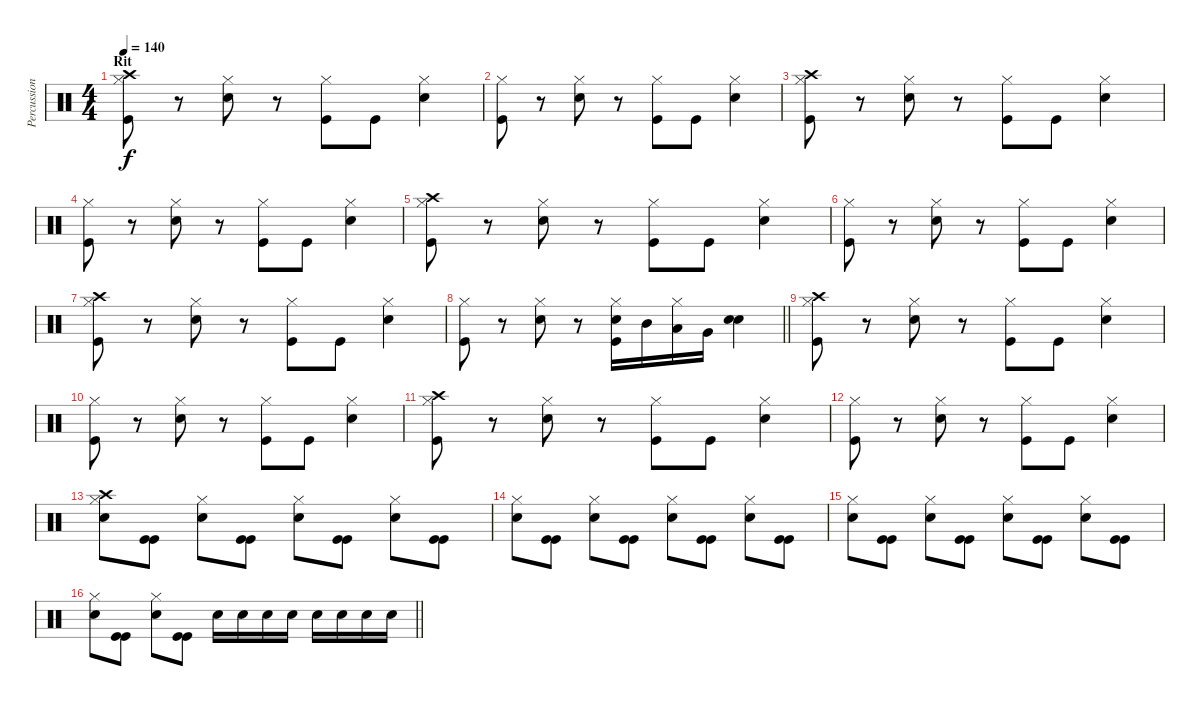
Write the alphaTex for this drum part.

\track ("Percussioni" "Percussion") {instrument percussion}
\staff {score}
\articulation defaults
\ts (4 4)
\section ("" "Rit")
\tempo 140
\clef neutral
\ks c
("Crash high (hit)" "Hi-Hat (closed)" "Kick (hit)").8{dy f} r.8 ("Hi-Hat (closed)" "Snare (hit) 2").8 r.8 ("Hi-Hat (closed)" "Kick (hit)").8 "Kick (hit)".8 ("Hi-Hat (closed)" "Snare (hit) 2").4 |
("Hi-Hat (closed)" "Kick (hit)").8 r.8 ("Hi-Hat (closed)" "Snare (hit) 2").8 r.8 ("Hi-Hat (closed)" "Kick (hit)").8 "Kick (hit)".8 ("Hi-Hat (closed)" "Snare (hit) 2").4 |
("Crash high (hit)" "Hi-Hat (closed)" "Kick (hit)").8 r.8 ("Hi-Hat (closed)" "Snare (hit) 2").8 r.8 ("Hi-Hat (closed)" "Kick (hit)").8 "Kick (hit)".8 ("Hi-Hat (closed)" "Snare (hit) 2").4 |
("Hi-Hat (closed)" "Kick (hit)").8 r.8 ("Hi-Hat (closed)" "Snare (hit) 2").8 r.8 ("Hi-Hat (closed)" "Kick (hit)").8 "Kick (hit)".8 ("Hi-Hat (closed)" "Snare (hit) 2").4 |
("Crash high (hit)" "Hi-Hat (closed)" "Kick (hit)").8 r.8 ("Hi-Hat (closed)" "Snare (hit) 2").8 r.8 ("Hi-Hat (closed)" "Kick (hit)").8 "Kick (hit)".8 ("Hi-Hat (closed)" "Snare (hit) 2").4 |
("Hi-Hat (closed)" "Kick (hit)").8 r.8 ("Hi-Hat (closed)" "Snare (hit) 2").8 r.8 ("Hi-Hat (closed)" "Kick (hit)").8 "Kick (hit)".8 ("Hi-Hat (closed)" "Snare (hit) 2").4 |
("Crash high (hit)" "Hi-Hat (closed)" "Kick (hit)").8 r.8 ("Hi-Hat (closed)" "Snare (hit) 2").8 r.8 ("Hi-Hat (closed)" "Kick (hit)").8 "Kick (hit)".8 ("Hi-Hat (closed)" "Snare (hit) 2").4 |
\barLineRight lightlight
("Hi-Hat (closed)" "Kick (hit)").8 r.8 ("Hi-Hat (closed)" "Snare (hit) 2").8 r.8 ("Hi-Hat (closed)" "Snare (hit) 2" "Kick (hit)").16 "Mid Tom (hit)".16 ("Hi-Hat (closed)" "Low Tom (hit)").16 "Very Low Tom (hit)".16 ("Snare (hit) 2" "Snare (hit) 2").4 |
("Crash high (hit)" "Hi-Hat (closed)" "Kick (hit)").8 r.8 ("Hi-Hat (closed)" "Snare (hit) 2").8 r.8 ("Hi-Hat (closed)" "Kick (hit)").8 "Kick (hit)".8 ("Hi-Hat (closed)" "Snare (hit) 2").4 |
("Hi-Hat (closed)" "Kick (hit)").8 r.8 ("Hi-Hat (closed)" "Snare (hit) 2").8 r.8 ("Hi-Hat (closed)" "Kick (hit)").8 "Kick (hit)".8 ("Hi-Hat (closed)" "Snare (hit) 2").4 |
("Crash high (hit)" "Hi-Hat (closed)" "Kick (hit)").8 r.8 ("Hi-Hat (closed)" "Snare (hit) 2").8 r.8 ("Hi-Hat (closed)" "Kick (hit)").8 "Kick (hit)".8 ("Hi-Hat (closed)" "Snare (hit) 2").4 |
("Hi-Hat (closed)" "Kick (hit)").8 r.8 ("Hi-Hat (closed)" "Snare (hit) 2").8 r.8 ("Hi-Hat (closed)" "Kick (hit)").8 "Kick (hit)".8 ("Hi-Hat (closed)" "Snare (hit) 2").4 |
("Crash high (hit)" "Hi-Hat (closed)" "Snare (hit) 2").8 ("Kick (hit)" "Kick (hit)").8 ("Hi-Hat (closed)" "Snare (hit) 2").8 ("Kick (hit)" "Kick (hit)").8 ("Hi-Hat (closed)" "Snare (hit) 2").8 ("Kick (hit)" "Kick (hit)").8 ("Hi-Hat (closed)" "Snare (hit) 2").8 ("Kick (hit)" "Kick (hit)").8 |
("Hi-Hat (closed)" "Snare (hit) 2").8 ("Kick (hit)" "Kick (hit)").8 ("Hi-Hat (closed)" "Snare (hit) 2").8 ("Kick (hit)" "Kick (hit)").8 ("Hi-Hat (closed)" "Snare (hit) 2").8 ("Kick (hit)" "Kick (hit)").8 ("Hi-Hat (closed)" "Snare (hit) 2").8 ("Kick (hit)" "Kick (hit)").8 |
("Hi-Hat (closed)" "Snare (hit) 2").8 ("Kick (hit)" "Kick (hit)").8 ("Hi-Hat (closed)" "Snare (hit) 2").8 ("Kick (hit)" "Kick (hit)").8 ("Hi-Hat (closed)" "Snare (hit) 2").8 ("Kick (hit)" "Kick (hit)").8 ("Hi-Hat (closed)" "Snare (hit) 2").8 ("Kick (hit)" "Kick (hit)").8 |
\barLineRight lightlight
("Hi-Hat (closed)" "Snare (hit) 2").8 ("Kick (hit)" "Kick (hit)").8 ("Hi-Hat (closed)" "Snare (hit) 2").8 ("Kick (hit)" "Kick (hit)").8 "Snare (hit) 2".16 "Snare (hit) 2".16 "Snare (hit) 2".16 "Snare (hit) 2".16 "Snare (hit) 2".16 "Snare (hit) 2".16 "Snare (hit) 2".16 "Snare (hit) 2".16
